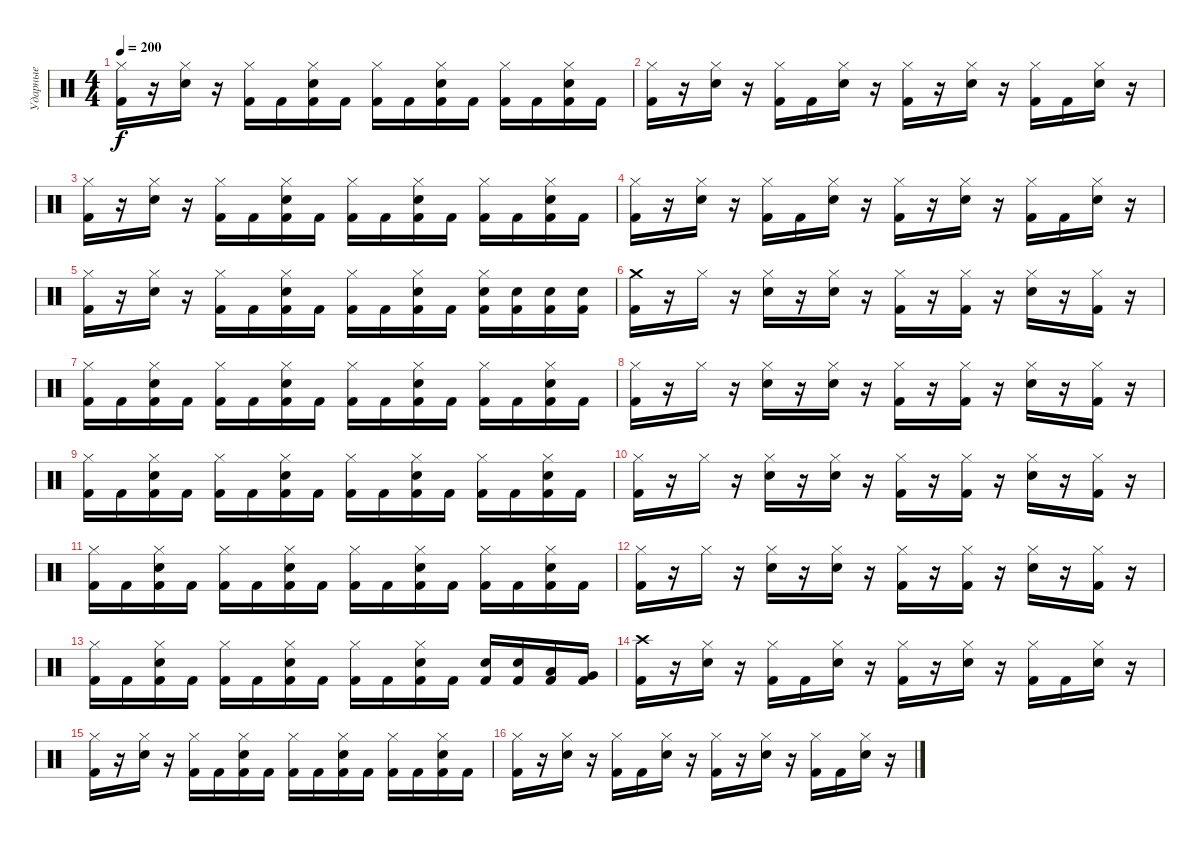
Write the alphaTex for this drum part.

\track ("Ударные" "Ударные") {instrument percussion}
\staff {score}
\articulation defaults
\ts (4 4)
\tempo 200
\clef neutral
\ks c
("Hi-Hat (closed)" "Kick (hit) 2").16{dy f} r.16 ("Hi-Hat (closed)" "Electric Snare (hit)").16 r.16 ("Hi-Hat (closed)" "Kick (hit) 2").16 "Kick (hit) 2".16 ("Hi-Hat (closed)" "Kick (hit) 2" "Electric Snare (hit)").16 "Kick (hit) 2".16 ("Hi-Hat (closed)" "Kick (hit) 2").16 "Kick (hit) 2".16 ("Hi-Hat (closed)" "Kick (hit) 2" "Electric Snare (hit)").16 "Kick (hit) 2".16 ("Hi-Hat (closed)" "Kick (hit) 2").16 "Kick (hit) 2".16 ("Hi-Hat (closed)" "Kick (hit) 2" "Electric Snare (hit)").16 "Kick (hit) 2".16 |
("Hi-Hat (closed)" "Kick (hit) 2").16 r.16 ("Hi-Hat (closed)" "Electric Snare (hit)").16 r.16 ("Hi-Hat (closed)" "Kick (hit) 2").16 "Kick (hit) 2".16 ("Hi-Hat (closed)" "Electric Snare (hit)").16 r.16 ("Hi-Hat (closed)" "Kick (hit) 2").16 r.16 ("Hi-Hat (closed)" "Electric Snare (hit)").16 r.16 ("Hi-Hat (closed)" "Kick (hit) 2").16 "Kick (hit) 2".16 ("Hi-Hat (closed)" "Electric Snare (hit)").16 r.16 |
("Hi-Hat (closed)" "Kick (hit) 2").16 r.16 ("Hi-Hat (closed)" "Electric Snare (hit)").16 r.16 ("Hi-Hat (closed)" "Kick (hit) 2").16 "Kick (hit) 2".16 ("Hi-Hat (closed)" "Kick (hit) 2" "Electric Snare (hit)").16 "Kick (hit) 2".16 ("Hi-Hat (closed)" "Kick (hit) 2").16 "Kick (hit) 2".16 ("Hi-Hat (closed)" "Kick (hit) 2" "Electric Snare (hit)").16 "Kick (hit) 2".16 ("Hi-Hat (closed)" "Kick (hit) 2").16 "Kick (hit) 2".16 ("Hi-Hat (closed)" "Kick (hit) 2" "Electric Snare (hit)").16 "Kick (hit) 2".16 |
("Hi-Hat (closed)" "Kick (hit) 2").16 r.16 ("Hi-Hat (closed)" "Electric Snare (hit)").16 r.16 ("Hi-Hat (closed)" "Kick (hit) 2").16 "Kick (hit) 2".16 ("Hi-Hat (closed)" "Electric Snare (hit)").16 r.16 ("Hi-Hat (closed)" "Kick (hit) 2").16 r.16 ("Hi-Hat (closed)" "Electric Snare (hit)").16 r.16 ("Hi-Hat (closed)" "Kick (hit) 2").16 "Kick (hit) 2".16 ("Hi-Hat (closed)" "Electric Snare (hit)").16 r.16 |
("Hi-Hat (closed)" "Kick (hit) 2").16 r.16 ("Hi-Hat (closed)" "Electric Snare (hit)").16 r.16 ("Hi-Hat (closed)" "Kick (hit) 2").16 "Kick (hit) 2".16 ("Hi-Hat (closed)" "Kick (hit) 2" "Electric Snare (hit)").16 "Kick (hit) 2".16 ("Hi-Hat (closed)" "Kick (hit) 2").16 "Kick (hit) 2".16 ("Hi-Hat (closed)" "Kick (hit) 2" "Electric Snare (hit)").16 "Kick (hit) 2".16 ("Hi-Hat (closed)" "Electric Snare (hit)" "Kick (hit) 2").16 ("Electric Snare (hit)" "Kick (hit) 2").16 ("Kick (hit) 2" "Electric Snare (hit)").16 ("Electric Snare (hit)" "Kick (hit) 2").16 |
("Kick (hit) 2" "Crash medium (hit)").16 r.16 "Hi-Hat (closed)".16 r.16 ("Electric Snare (hit)" "Hi-Hat (closed)").16 r.16 ("Electric Snare (hit)" "Hi-Hat (closed)").16 r.16 ("Kick (hit) 2" "Hi-Hat (closed)").16 r.16 ("Kick (hit) 2" "Hi-Hat (closed)").16 r.16 ("Electric Snare (hit)" "Hi-Hat (closed)").16 r.16 ("Kick (hit) 2" "Hi-Hat (closed)").16 r.16 |
("Kick (hit) 2" "Hi-Hat (closed)").16 "Kick (hit) 2".16 ("Kick (hit) 2" "Electric Snare (hit)" "Hi-Hat (closed)").16 "Kick (hit) 2".16 ("Kick (hit) 2" "Hi-Hat (closed)").16 "Kick (hit) 2".16 ("Kick (hit) 2" "Electric Snare (hit)" "Hi-Hat (closed)").16 "Kick (hit) 2".16 ("Kick (hit) 2" "Hi-Hat (closed)").16 "Kick (hit) 2".16 ("Kick (hit) 2" "Electric Snare (hit)" "Hi-Hat (closed)").16 "Kick (hit) 2".16 ("Kick (hit) 2" "Hi-Hat (closed)").16 "Kick (hit) 2".16 ("Kick (hit) 2" "Electric Snare (hit)" "Hi-Hat (closed)").16 "Kick (hit) 2".16 |
("Kick (hit) 2" "Hi-Hat (closed)").16 r.16 "Hi-Hat (closed)".16 r.16 ("Electric Snare (hit)" "Hi-Hat (closed)").16 r.16 ("Electric Snare (hit)" "Hi-Hat (closed)").16 r.16 ("Kick (hit) 2" "Hi-Hat (closed)").16 r.16 ("Kick (hit) 2" "Hi-Hat (closed)").16 r.16 ("Electric Snare (hit)" "Hi-Hat (closed)").16 r.16 ("Kick (hit) 2" "Hi-Hat (closed)").16 r.16 |
("Kick (hit) 2" "Hi-Hat (closed)").16 "Kick (hit) 2".16 ("Kick (hit) 2" "Electric Snare (hit)" "Hi-Hat (closed)").16 "Kick (hit) 2".16 ("Kick (hit) 2" "Hi-Hat (closed)").16 "Kick (hit) 2".16 ("Kick (hit) 2" "Electric Snare (hit)" "Hi-Hat (closed)").16 "Kick (hit) 2".16 ("Kick (hit) 2" "Hi-Hat (closed)").16 "Kick (hit) 2".16 ("Kick (hit) 2" "Electric Snare (hit)" "Hi-Hat (closed)").16 "Kick (hit) 2".16 ("Kick (hit) 2" "Hi-Hat (closed)").16 "Kick (hit) 2".16 ("Kick (hit) 2" "Electric Snare (hit)" "Hi-Hat (closed)").16 "Kick (hit) 2".16 |
("Kick (hit) 2" "Hi-Hat (closed)").16 r.16 "Hi-Hat (closed)".16 r.16 ("Electric Snare (hit)" "Hi-Hat (closed)").16 r.16 ("Electric Snare (hit)" "Hi-Hat (closed)").16 r.16 ("Kick (hit) 2" "Hi-Hat (closed)").16 r.16 ("Kick (hit) 2" "Hi-Hat (closed)").16 r.16 ("Electric Snare (hit)" "Hi-Hat (closed)").16 r.16 ("Kick (hit) 2" "Hi-Hat (closed)").16 r.16 |
("Kick (hit) 2" "Hi-Hat (closed)").16 "Kick (hit) 2".16 ("Kick (hit) 2" "Electric Snare (hit)" "Hi-Hat (closed)").16 "Kick (hit) 2".16 ("Kick (hit) 2" "Hi-Hat (closed)").16 "Kick (hit) 2".16 ("Kick (hit) 2" "Electric Snare (hit)" "Hi-Hat (closed)").16 "Kick (hit) 2".16 ("Kick (hit) 2" "Hi-Hat (closed)").16 "Kick (hit) 2".16 ("Kick (hit) 2" "Electric Snare (hit)" "Hi-Hat (closed)").16 "Kick (hit) 2".16 ("Kick (hit) 2" "Hi-Hat (closed)").16 "Kick (hit) 2".16 ("Kick (hit) 2" "Electric Snare (hit)" "Hi-Hat (closed)").16 "Kick (hit) 2".16 |
("Kick (hit) 2" "Hi-Hat (closed)").16 r.16 "Hi-Hat (closed)".16 r.16 ("Electric Snare (hit)" "Hi-Hat (closed)").16 r.16 ("Electric Snare (hit)" "Hi-Hat (closed)").16 r.16 ("Kick (hit) 2" "Hi-Hat (closed)").16 r.16 ("Kick (hit) 2" "Hi-Hat (closed)").16 r.16 ("Electric Snare (hit)" "Hi-Hat (closed)").16 r.16 ("Kick (hit) 2" "Hi-Hat (closed)").16 r.16 |
("Kick (hit) 2" "Hi-Hat (closed)").16 "Kick (hit) 2".16 ("Kick (hit) 2" "Electric Snare (hit)" "Hi-Hat (closed)").16 "Kick (hit) 2".16 ("Kick (hit) 2" "Hi-Hat (closed)").16 "Kick (hit) 2".16 ("Kick (hit) 2" "Electric Snare (hit)" "Hi-Hat (closed)").16 "Kick (hit) 2".16 ("Kick (hit) 2" "Hi-Hat (closed)").16 "Kick (hit) 2".16 ("Kick (hit) 2" "Electric Snare (hit)" "Hi-Hat (closed)").16 "Kick (hit) 2".16 ("Kick (hit) 2" "Electric Snare (hit)").16 ("Kick (hit) 2" "Electric Snare (hit)").16 ("Kick (hit) 2" "Low Tom (hit)").16 ("Kick (hit) 2" "Very Low Tom (hit)").16 |
("Crash high (hit)" "Kick (hit) 2").16 r.16 ("Hi-Hat (closed)" "Electric Snare (hit)").16 r.16 ("Hi-Hat (closed)" "Kick (hit) 2").16 "Kick (hit) 2".16 ("Hi-Hat (closed)" "Electric Snare (hit)").16 r.16 ("Hi-Hat (closed)" "Kick (hit) 2").16 r.16 ("Hi-Hat (closed)" "Electric Snare (hit)").16 r.16 ("Hi-Hat (closed)" "Kick (hit) 2").16 "Kick (hit) 2".16 ("Hi-Hat (closed)" "Electric Snare (hit)").16 r.16 |
("Hi-Hat (closed)" "Kick (hit) 2").16 r.16 ("Hi-Hat (closed)" "Electric Snare (hit)").16 r.16 ("Hi-Hat (closed)" "Kick (hit) 2").16 "Kick (hit) 2".16 ("Hi-Hat (closed)" "Electric Snare (hit)" "Kick (hit) 2").16 "Kick (hit) 2".16 ("Hi-Hat (closed)" "Kick (hit) 2").16 "Kick (hit) 2".16 ("Hi-Hat (closed)" "Kick (hit) 2" "Electric Snare (hit)").16 "Kick (hit) 2".16 ("Hi-Hat (closed)" "Kick (hit) 2").16 "Kick (hit) 2".16 ("Hi-Hat (closed)" "Kick (hit) 2" "Electric Snare (hit)").16 "Kick (hit) 2".16 |
("Hi-Hat (closed)" "Kick (hit) 2").16 r.16 ("Hi-Hat (closed)" "Electric Snare (hit)").16 r.16 ("Hi-Hat (closed)" "Kick (hit) 2").16 "Kick (hit) 2".16 ("Hi-Hat (closed)" "Electric Snare (hit)").16 r.16 ("Hi-Hat (closed)" "Kick (hit) 2").16 r.16 ("Hi-Hat (closed)" "Electric Snare (hit)").16 r.16 ("Hi-Hat (closed)" "Kick (hit) 2").16 "Kick (hit) 2".16 ("Hi-Hat (closed)" "Electric Snare (hit)").16 r.16
